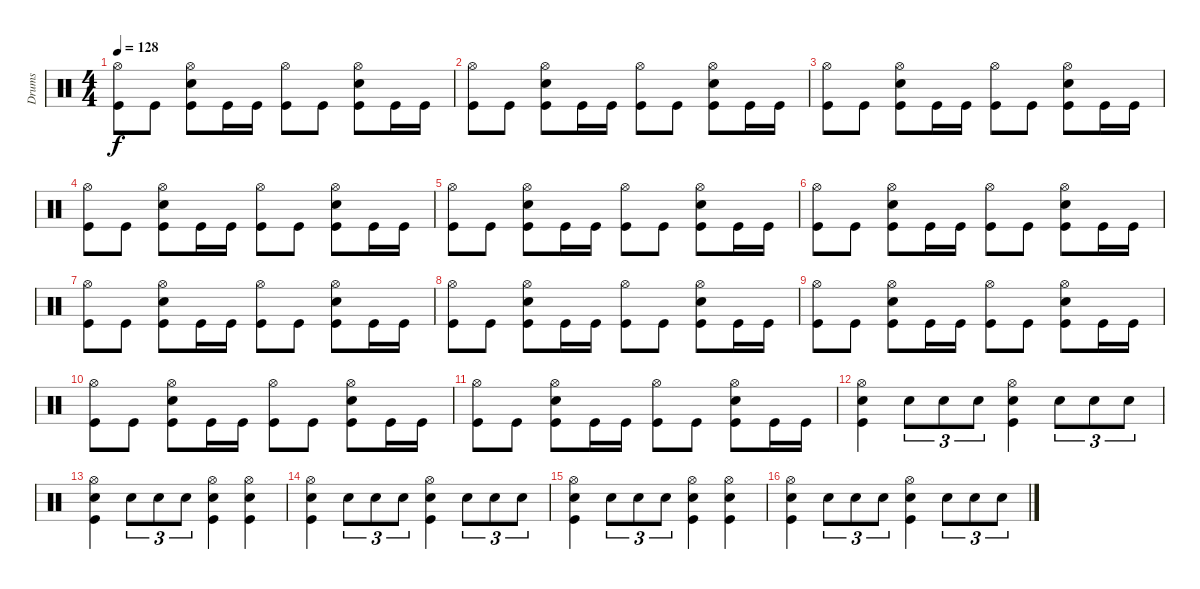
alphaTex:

\track ("Drums" "Drums") {instrument percussion}
\staff {score}
\articulation defaults
\ts (4 4)
\tempo 128
\clef neutral
\ks c
("Hi-Hat (open)" "Kick (hit)").8{dy f} "Kick (hit)".8 ("Hi-Hat (open)" "Snare (hit) 2" "Kick (hit)").8 "Kick (hit)".16 "Kick (hit)".16 ("Hi-Hat (open)" "Kick (hit)").8 "Kick (hit)".8 ("Hi-Hat (open)" "Snare (hit) 2" "Kick (hit)").8 "Kick (hit)".16 "Kick (hit)".16 |
("Hi-Hat (open)" "Kick (hit)").8 "Kick (hit)".8 ("Hi-Hat (open)" "Snare (hit) 2" "Kick (hit)").8 "Kick (hit)".16 "Kick (hit)".16 ("Hi-Hat (open)" "Kick (hit)").8 "Kick (hit)".8 ("Hi-Hat (open)" "Snare (hit) 2" "Kick (hit)").8 "Kick (hit)".16 "Kick (hit)".16 |
("Hi-Hat (open)" "Kick (hit)").8 "Kick (hit)".8 ("Hi-Hat (open)" "Snare (hit) 2" "Kick (hit)").8 "Kick (hit)".16 "Kick (hit)".16 ("Hi-Hat (open)" "Kick (hit)").8 "Kick (hit)".8 ("Hi-Hat (open)" "Snare (hit) 2" "Kick (hit)").8 "Kick (hit)".16 "Kick (hit)".16 |
("Hi-Hat (open)" "Kick (hit)").8 "Kick (hit)".8 ("Hi-Hat (open)" "Snare (hit) 2" "Kick (hit)").8 "Kick (hit)".16 "Kick (hit)".16 ("Hi-Hat (open)" "Kick (hit)").8 "Kick (hit)".8 ("Hi-Hat (open)" "Snare (hit) 2" "Kick (hit)").8 "Kick (hit)".16 "Kick (hit)".16 |
("Hi-Hat (open)" "Kick (hit)").8 "Kick (hit)".8 ("Hi-Hat (open)" "Snare (hit) 2" "Kick (hit)").8 "Kick (hit)".16 "Kick (hit)".16 ("Hi-Hat (open)" "Kick (hit)").8 "Kick (hit)".8 ("Hi-Hat (open)" "Snare (hit) 2" "Kick (hit)").8 "Kick (hit)".16 "Kick (hit)".16 |
("Hi-Hat (open)" "Kick (hit)").8 "Kick (hit)".8 ("Hi-Hat (open)" "Snare (hit) 2" "Kick (hit)").8 "Kick (hit)".16 "Kick (hit)".16 ("Hi-Hat (open)" "Kick (hit)").8 "Kick (hit)".8 ("Hi-Hat (open)" "Snare (hit) 2" "Kick (hit)").8 "Kick (hit)".16 "Kick (hit)".16 |
("Hi-Hat (open)" "Kick (hit)").8 "Kick (hit)".8 ("Hi-Hat (open)" "Snare (hit) 2" "Kick (hit)").8 "Kick (hit)".16 "Kick (hit)".16 ("Hi-Hat (open)" "Kick (hit)").8 "Kick (hit)".8 ("Hi-Hat (open)" "Snare (hit) 2" "Kick (hit)").8 "Kick (hit)".16 "Kick (hit)".16 |
("Hi-Hat (open)" "Kick (hit)").8 "Kick (hit)".8 ("Hi-Hat (open)" "Snare (hit) 2" "Kick (hit)").8 "Kick (hit)".16 "Kick (hit)".16 ("Hi-Hat (open)" "Kick (hit)").8 "Kick (hit)".8 ("Hi-Hat (open)" "Snare (hit) 2" "Kick (hit)").8 "Kick (hit)".16 "Kick (hit)".16 |
("Hi-Hat (open)" "Kick (hit)").8 "Kick (hit)".8 ("Hi-Hat (open)" "Snare (hit) 2" "Kick (hit)").8 "Kick (hit)".16 "Kick (hit)".16 ("Hi-Hat (open)" "Kick (hit)").8 "Kick (hit)".8 ("Hi-Hat (open)" "Snare (hit) 2" "Kick (hit)").8 "Kick (hit)".16 "Kick (hit)".16 |
("Hi-Hat (open)" "Kick (hit)").8 "Kick (hit)".8 ("Hi-Hat (open)" "Snare (hit) 2" "Kick (hit)").8 "Kick (hit)".16 "Kick (hit)".16 ("Hi-Hat (open)" "Kick (hit)").8 "Kick (hit)".8 ("Hi-Hat (open)" "Snare (hit) 2" "Kick (hit)").8 "Kick (hit)".16 "Kick (hit)".16 |
("Hi-Hat (open)" "Kick (hit)").8 "Kick (hit)".8 ("Hi-Hat (open)" "Snare (hit) 2" "Kick (hit)").8 "Kick (hit)".16 "Kick (hit)".16 ("Hi-Hat (open)" "Kick (hit)").8 "Kick (hit)".8 ("Hi-Hat (open)" "Snare (hit) 2" "Kick (hit)").8 "Kick (hit)".16 "Kick (hit)".16 |
\section ("" "")
("Hi-Hat (open)" "Snare (hit) 2" "Kick (hit)").4 "Snare (hit) 2".8{tu (3 2)} "Snare (hit) 2".8{tu (3 2)} "Snare (hit) 2".8{tu (3 2)} ("Hi-Hat (open)" "Snare (hit) 2" "Kick (hit)").4 "Snare (hit) 2".8{tu (3 2)} "Snare (hit) 2".8{tu (3 2)} "Snare (hit) 2".8{tu (3 2)} |
("Hi-Hat (open)" "Snare (hit) 2" "Kick (hit)").4 "Snare (hit) 2".8{tu (3 2)} "Snare (hit) 2".8{tu (3 2)} "Snare (hit) 2".8{tu (3 2)} ("Hi-Hat (open)" "Snare (hit) 2" "Kick (hit)").4 ("Hi-Hat (open)" "Snare (hit) 2" "Kick (hit)").4 |
("Hi-Hat (open)" "Snare (hit) 2" "Kick (hit)").4 "Snare (hit) 2".8{tu (3 2)} "Snare (hit) 2".8{tu (3 2)} "Snare (hit) 2".8{tu (3 2)} ("Hi-Hat (open)" "Snare (hit) 2" "Kick (hit)").4 "Snare (hit) 2".8{tu (3 2)} "Snare (hit) 2".8{tu (3 2)} "Snare (hit) 2".8{tu (3 2)} |
("Hi-Hat (open)" "Snare (hit) 2" "Kick (hit)").4 "Snare (hit) 2".8{tu (3 2)} "Snare (hit) 2".8{tu (3 2)} "Snare (hit) 2".8{tu (3 2)} ("Hi-Hat (open)" "Snare (hit) 2" "Kick (hit)").4 ("Hi-Hat (open)" "Snare (hit) 2" "Kick (hit)").4 |
("Hi-Hat (open)" "Snare (hit) 2" "Kick (hit)").4 "Snare (hit) 2".8{tu (3 2)} "Snare (hit) 2".8{tu (3 2)} "Snare (hit) 2".8{tu (3 2)} ("Hi-Hat (open)" "Snare (hit) 2" "Kick (hit)").4 "Snare (hit) 2".8{tu (3 2)} "Snare (hit) 2".8{tu (3 2)} "Snare (hit) 2".8{tu (3 2)}
